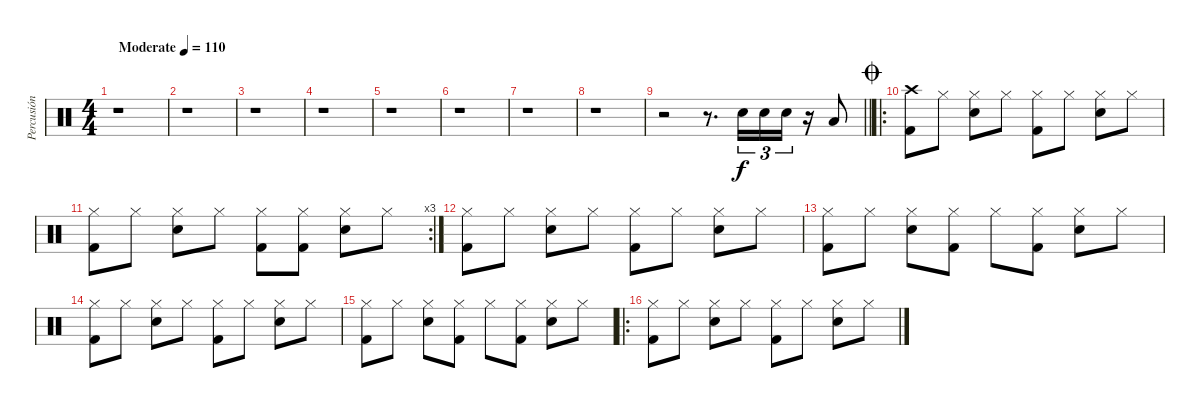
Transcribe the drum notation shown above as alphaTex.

\track ("Percusión" "Percusión") {instrument percussion}
\staff {score}
\articulation defaults
\ts (4 4)
\tempo (110 "Moderate")
\clef neutral
\ks c
r.1{dy f} |
r.1 |
r.1 |
r.1 |
r.1 |
r.1 |
r.1 |
r.1 |
\barLineRight lightlight
r.2 r.8{d} "Snare (hit) 2".16{tu (3 2)} "Snare (hit) 2".16{tu (3 2)} "Snare (hit) 2".16{tu (3 2)} r.16 "Low Tom (hit)".8 |
\ro
\jump coda
("Crash high (hit)" "Kick (hit) 2").8 "Hi-Hat (closed)".8 ("Hi-Hat (closed)" "Snare (hit) 2").8 "Hi-Hat (closed)".8 ("Hi-Hat (closed)" "Kick (hit) 2").8 "Hi-Hat (closed)".8 ("Hi-Hat (closed)" "Snare (hit) 2").8 "Hi-Hat (closed)".8 |
\rc 3
("Hi-Hat (closed)" "Kick (hit) 2").8 "Hi-Hat (closed)".8 ("Hi-Hat (closed)" "Snare (hit) 2").8 "Hi-Hat (closed)".8 ("Hi-Hat (closed)" "Kick (hit) 2").8 ("Hi-Hat (closed)" "Kick (hit) 2").8 ("Hi-Hat (closed)" "Snare (hit) 2").8 "Hi-Hat (closed)".8 |
("Hi-Hat (closed)" "Kick (hit) 2").8 "Hi-Hat (closed)".8 ("Hi-Hat (closed)" "Snare (hit) 2").8 "Hi-Hat (closed)".8 ("Hi-Hat (closed)" "Kick (hit) 2").8 "Hi-Hat (closed)".8 ("Hi-Hat (closed)" "Snare (hit) 2").8 "Hi-Hat (closed)".8 |
("Hi-Hat (closed)" "Kick (hit) 2").8 "Hi-Hat (closed)".8 ("Hi-Hat (closed)" "Snare (hit) 2").8 ("Hi-Hat (closed)" "Kick (hit) 2").8 "Hi-Hat (closed)".8 ("Hi-Hat (closed)" "Kick (hit) 2").8 ("Hi-Hat (closed)" "Snare (hit) 2").8 "Hi-Hat (closed)".8 |
("Hi-Hat (closed)" "Kick (hit) 2").8 "Hi-Hat (closed)".8 ("Hi-Hat (closed)" "Snare (hit) 2").8 "Hi-Hat (closed)".8 ("Hi-Hat (closed)" "Kick (hit) 2").8 "Hi-Hat (closed)".8 ("Hi-Hat (closed)" "Snare (hit) 2").8 "Hi-Hat (closed)".8 |
("Hi-Hat (closed)" "Kick (hit) 2").8 "Hi-Hat (closed)".8 ("Hi-Hat (closed)" "Snare (hit) 2").8 ("Hi-Hat (closed)" "Kick (hit) 2").8 "Hi-Hat (closed)".8 ("Hi-Hat (closed)" "Kick (hit) 2").8 ("Hi-Hat (closed)" "Snare (hit) 2").8 "Hi-Hat (closed)".8 |
\ro
("Hi-Hat (closed)" "Kick (hit) 2").8 "Hi-Hat (closed)".8 ("Hi-Hat (closed)" "Snare (hit) 2").8 "Hi-Hat (closed)".8 ("Hi-Hat (closed)" "Kick (hit) 2").8 "Hi-Hat (closed)".8 ("Hi-Hat (closed)" "Snare (hit) 2").8 "Hi-Hat (closed)".8
